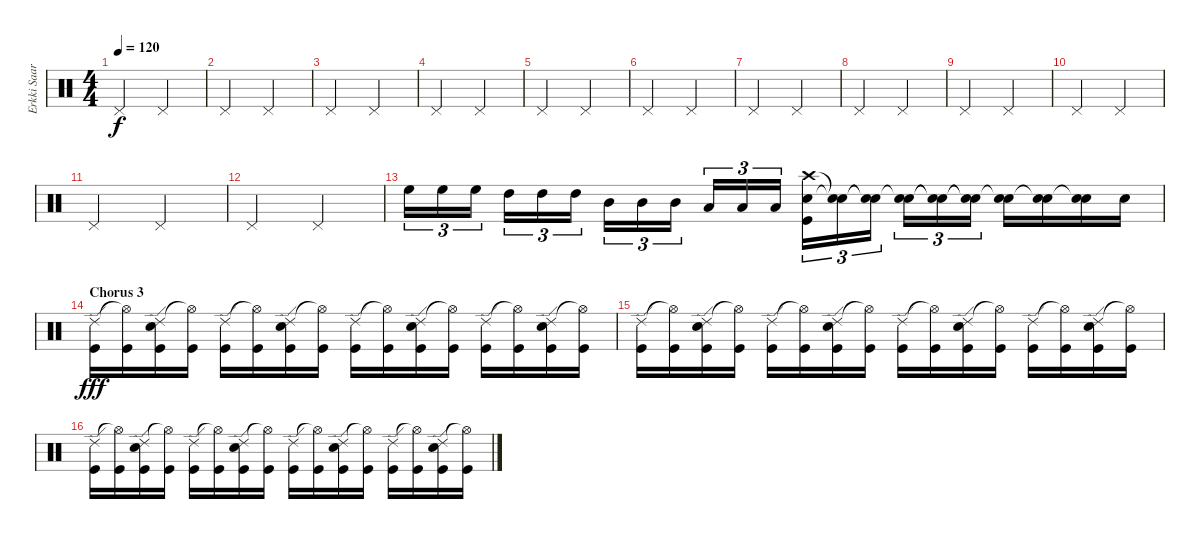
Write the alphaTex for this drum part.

\track ("Erkki Saarinen" "Erkki Saar") {instrument percussion}
\staff {score}
\articulation defaults
\ts (4 4)
\tempo 120
\clef neutral
\ks c "Pedal Hi-Hat (hit)".2{dy f} "Pedal Hi-Hat (hit)".2
|
"Pedal Hi-Hat (hit)".2 "Pedal Hi-Hat (hit)".2 |
"Pedal Hi-Hat (hit)".2 "Pedal Hi-Hat (hit)".2 |
"Pedal Hi-Hat (hit)".2 "Pedal Hi-Hat (hit)".2 |
"Pedal Hi-Hat (hit)".2 "Pedal Hi-Hat (hit)".2 |
"Pedal Hi-Hat (hit)".2 "Pedal Hi-Hat (hit)".2 |
"Pedal Hi-Hat (hit)".2 "Pedal Hi-Hat (hit)".2 |
"Pedal Hi-Hat (hit)".2 "Pedal Hi-Hat (hit)".2 |
"Pedal Hi-Hat (hit)".2 "Pedal Hi-Hat (hit)".2 |
"Pedal Hi-Hat (hit)".2 "Pedal Hi-Hat (hit)".2 |
"Pedal Hi-Hat (hit)".2 "Pedal Hi-Hat (hit)".2 |
"Pedal Hi-Hat (hit)".2 "Pedal Hi-Hat (hit)".2 |
"High Floor Tom (hit)".16{tu (3 2)} "High Floor Tom (hit)".16{tu (3 2)} "High Floor Tom (hit)".16{tu (3 2)} "High Tom (hit)".16{tu (3 2)} "High Tom (hit)".16{tu (3 2)} "High Tom (hit)".16{tu (3 2)} "Mid Tom (hit)".16{tu (3 2)} "Mid Tom (hit)".16{tu (3 2)} "Mid Tom (hit)".16{tu (3 2)} "Low Tom (hit)".16{tu (3 2)} "Low Tom (hit)".16{tu (3 2)} "Low Tom (hit)".16{tu (3 2)} ("Crash high (hit)" "Snare (hit) 2" "Kick (hit)").16{tu (3 2)} ("Snare (hit)"{t} "Snare (hit) 2"{t}).16{tu (3 2)} ("Snare (hit)"{t} "Snare (hit) 2"{t}).16{tu (3 2)} ("Snare (hit)"{t} "Snare (hit) 2").16{tu (3 2)} ("Snare (hit)"{t} "Snare (hit) 2"{t}).16{tu (3 2)} ("Snare (hit)"{t} "Snare (hit)"{t}).16{tu (3 2)} ("Snare (hit)"{t} "Snare (hit) 2").16 ("Snare (hit)"{t} "Snare (hit) 2").16 ("Snare (hit)"{t} "Snare (hit) 2").16 "Snare (hit) 2".16 |
\section ("" "Chorus 3")
("Ride (edge) 2" "Kick (hit)").16{dy fff} ("Hi-Hat (open)"{t} "Kick (hit)").16 ("Ride (edge) 2" "Snare (hit) 2" "Kick (hit)").16 ("Hi-Hat (open)"{t} "Kick (hit)").16 ("Ride (edge) 2" "Kick (hit)").16 ("Hi-Hat (open)"{t} "Kick (hit)").16 ("Ride (edge) 2" "Snare (hit) 2" "Kick (hit)").16 ("Hi-Hat (open)"{t} "Kick (hit)").16 ("Ride (edge) 2" "Kick (hit)").16 ("Hi-Hat (open)"{t} "Kick (hit)").16 ("Ride (edge) 2" "Snare (hit) 2" "Kick (hit)").16 ("Hi-Hat (open)"{t} "Kick (hit)").16 ("Ride (edge) 2" "Kick (hit)").16 ("Hi-Hat (open)"{t} "Kick (hit)").16 ("Ride (edge) 2" "Snare (hit) 2" "Kick (hit)").16 ("Hi-Hat (open)"{t} "Kick (hit)").16 |
("Ride (edge) 2" "Kick (hit)").16 ("Hi-Hat (open)"{t} "Kick (hit)").16 ("Ride (edge) 2" "Snare (hit) 2" "Kick (hit)").16 ("Hi-Hat (open)"{t} "Kick (hit)").16 ("Ride (edge) 2" "Kick (hit)").16 ("Hi-Hat (open)"{t} "Kick (hit)").16 ("Ride (edge) 2" "Snare (hit) 2" "Kick (hit)").16 ("Hi-Hat (open)"{t} "Kick (hit)").16 ("Ride (edge) 2" "Kick (hit)").16 ("Hi-Hat (open)"{t} "Kick (hit)").16 ("Ride (edge) 2" "Snare (hit) 2" "Kick (hit)").16 ("Hi-Hat (open)"{t} "Kick (hit)").16 ("Ride (edge) 2" "Kick (hit)").16 ("Hi-Hat (open)"{t} "Kick (hit)").16 ("Ride (edge) 2" "Snare (hit) 2" "Kick (hit)").16 ("Hi-Hat (open)"{t} "Kick (hit)").16 |
("Ride (edge) 2" "Kick (hit)").16 ("Hi-Hat (open)"{t} "Kick (hit)").16 ("Ride (edge) 2" "Snare (hit) 2" "Kick (hit)").16 ("Hi-Hat (open)"{t} "Kick (hit)").16 ("Ride (edge) 2" "Kick (hit)").16 ("Hi-Hat (open)"{t} "Kick (hit)").16 ("Ride (edge) 2" "Snare (hit) 2" "Kick (hit)").16 ("Hi-Hat (open)"{t} "Kick (hit)").16 ("Ride (edge) 2" "Kick (hit)").16 ("Hi-Hat (open)"{t} "Kick (hit)").16 ("Ride (edge) 2" "Snare (hit) 2" "Kick (hit)").16 ("Hi-Hat (open)"{t} "Kick (hit)").16 ("Ride (edge) 2" "Kick (hit)").16 ("Hi-Hat (open)"{t} "Kick (hit)").16 ("Ride (edge) 2" "Snare (hit) 2" "Kick (hit)").16 ("Hi-Hat (open)"{t} "Kick (hit)").16
